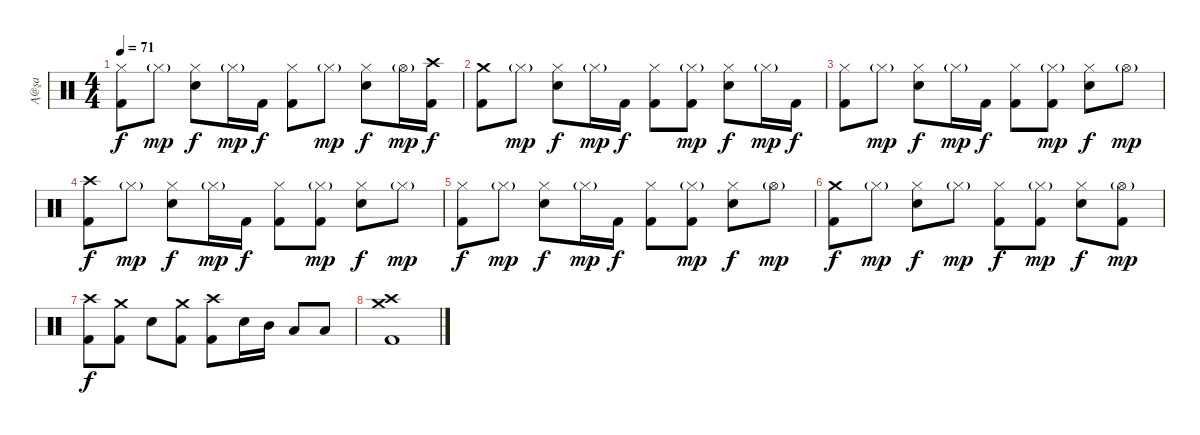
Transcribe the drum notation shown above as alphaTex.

\track ("Ą@şa" "Ą@şa") {instrument percussion}
\staff {score}
\articulation defaults
\ts (4 4)
\tempo 71
\clef neutral
\ks c
("Hi-Hat (closed)" "Kick (hit) 2").8{dy f} "Hi-Hat (closed)"{g}.8{dy mp} ("Hi-Hat (closed)" "Electric Snare (hit)").8{dy f} "Hi-Hat (closed)"{g}.16{dy mp} "Kick (hit) 2".16{dy f} ("Hi-Hat (closed)" "Kick (hit) 2").8 "Hi-Hat (closed)"{g}.8{dy mp} ("Hi-Hat (closed)" "Electric Snare (hit)").8{dy f} "Hi-Hat (open)"{g}.16{dy mp} ("Crash high (hit)" "Kick (hit) 2").16{dy f} |
("Crash medium (hit)" "Kick (hit) 2").8 "Hi-Hat (closed)"{g}.8{dy mp} ("Hi-Hat (closed)" "Electric Snare (hit)").8{dy f} "Hi-Hat (closed)"{g}.16{dy mp} "Kick (hit) 2".16{dy f} ("Hi-Hat (closed)" "Kick (hit) 2").8 ("Hi-Hat (closed)"{g} "Kick (hit) 2").8{dy mp} ("Hi-Hat (closed)" "Electric Snare (hit)").8{dy f} "Hi-Hat (closed)"{g}.16{dy mp} "Kick (hit) 2".16{dy f} |
("Hi-Hat (closed)" "Kick (hit) 2").8 "Hi-Hat (closed)"{g}.8{dy mp} ("Hi-Hat (closed)" "Electric Snare (hit)").8{dy f} "Hi-Hat (closed)"{g}.16{dy mp} "Kick (hit) 2".16{dy f} ("Hi-Hat (closed)" "Kick (hit) 2").8 ("Hi-Hat (closed)"{g} "Kick (hit) 2").8{dy mp} ("Hi-Hat (closed)" "Electric Snare (hit)").8{dy f} "Hi-Hat (open)"{g}.8{dy mp} |
("Crash high (hit)" "Kick (hit) 2").8{dy f} "Hi-Hat (closed)"{g}.8{dy mp} ("Hi-Hat (closed)" "Electric Snare (hit)").8{dy f} "Hi-Hat (closed)"{g}.16{dy mp} "Kick (hit) 2".16{dy f} ("Hi-Hat (closed)" "Kick (hit) 2").8 ("Hi-Hat (closed)"{g} "Kick (hit) 2").8{dy mp} ("Hi-Hat (closed)" "Electric Snare (hit)").8{dy f} "Hi-Hat (closed)"{g}.8{dy mp} |
("Hi-Hat (closed)" "Kick (hit) 2").8{dy f} "Hi-Hat (closed)"{g}.8{dy mp} ("Hi-Hat (closed)" "Electric Snare (hit)").8{dy f} "Hi-Hat (closed)"{g}.16{dy mp} "Kick (hit) 2".16{dy f} ("Hi-Hat (closed)" "Kick (hit) 2").8 ("Hi-Hat (closed)"{g} "Kick (hit) 2").8{dy mp} ("Hi-Hat (closed)" "Electric Snare (hit)").8{dy f} "Hi-Hat (open)"{g}.8{dy mp} |
("Crash medium (hit)" "Kick (hit) 2").8{dy f} "Hi-Hat (closed)"{g}.8{dy mp} ("Hi-Hat (closed)" "Electric Snare (hit)").8{dy f} "Hi-Hat (closed)"{g}.8{dy mp} ("Hi-Hat (closed)" "Kick (hit) 2").8{dy f} ("Hi-Hat (closed)"{g} "Kick (hit) 2").8{dy mp} ("Hi-Hat (closed)" "Electric Snare (hit)").8{dy f} ("Hi-Hat (open)"{g} "Kick (hit) 2").8{dy mp} |
("Crash high (hit)" "Kick (hit) 2").8{dy f} ("Crash medium (hit)" "Kick (hit) 2").8 "Electric Snare (hit)".8 ("Crash medium (hit)" "Kick (hit) 2").8 ("Crash high (hit)" "Kick (hit) 2").8 "Electric Snare (hit)".16 "Mid Tom (hit)".16 "Low Tom (hit)".8 "Low Tom (hit)".8 |
("Crash high (hit)" "Crash medium (hit)" "Kick (hit) 2").1
